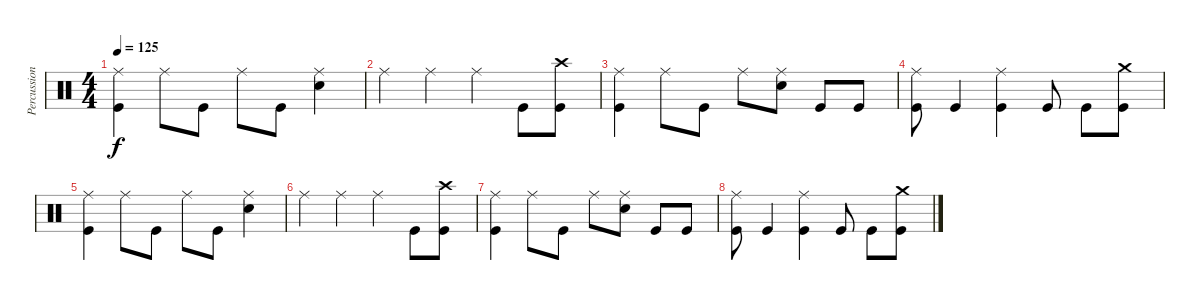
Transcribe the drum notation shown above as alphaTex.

\track ("Percussion" "Percussion") {instrument percussion}
\staff {score}
\articulation defaults
\ts (4 4)
\tempo 125
\clef neutral
\ks c
("Ride (middle)" "Kick (hit)").4{dy f} "Ride (middle)".8 "Kick (hit)".8 "Ride (middle)".8 "Kick (hit)".8 ("Ride (middle)" "Electric Snare (hit)").4 |
"Ride (middle)".4 "Ride (middle)".4 "Ride (middle)".4 "Kick (hit)".8 ("Crash high (hit)" "Kick (hit)").8 |
("Ride (middle)" "Kick (hit)").4 "Ride (middle)".8 "Kick (hit)".8 "Ride (middle)".8 ("Ride (middle)" "Electric Snare (hit)").8 "Kick (hit)".8 "Kick (hit)".8 |
("Ride (middle)" "Kick (hit)").8 "Kick (hit)".4 ("Ride (middle)" "Kick (hit)").4 "Kick (hit)".8 "Kick (hit)".8 ("Crash medium (hit)" "Kick (hit)").8 |
("Ride (middle)" "Kick (hit)").4 "Ride (middle)".8 "Kick (hit)".8 "Ride (middle)".8 "Kick (hit)".8 ("Ride (middle)" "Electric Snare (hit)").4 |
"Ride (middle)".4 "Ride (middle)".4 "Ride (middle)".4 "Kick (hit)".8 ("Crash high (hit)" "Kick (hit)").8 |
("Ride (middle)" "Kick (hit)").4 "Ride (middle)".8 "Kick (hit)".8 "Ride (middle)".8 ("Ride (middle)" "Electric Snare (hit)").8 "Kick (hit)".8 "Kick (hit)".8 |
("Ride (middle)" "Kick (hit)").8 "Kick (hit)".4 ("Ride (middle)" "Kick (hit)").4 "Kick (hit)".8 "Kick (hit)".8 ("Crash medium (hit)" "Kick (hit)").8
